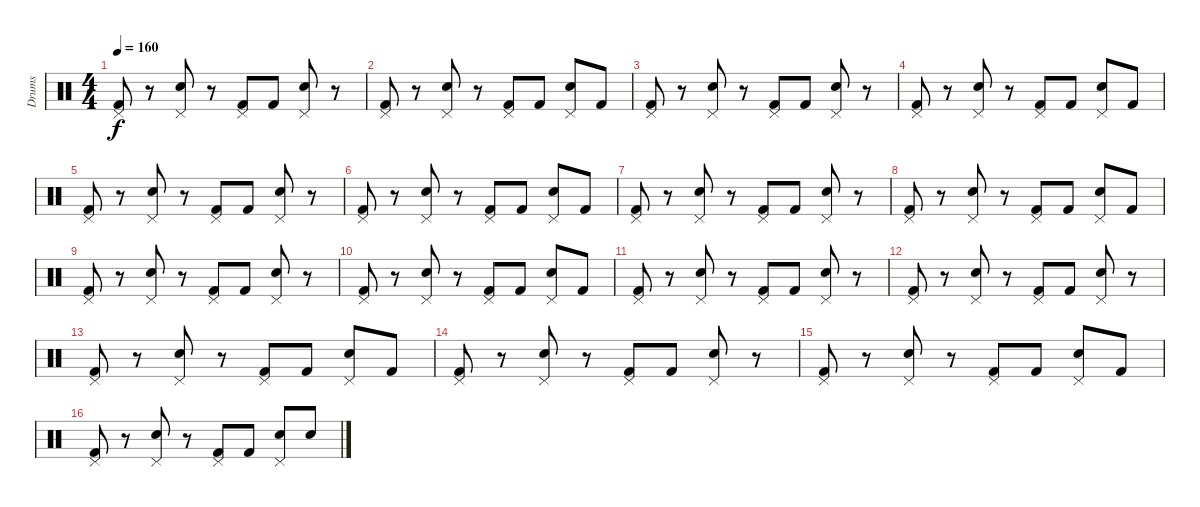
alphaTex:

\track ("Drums" "Drums") {instrument percussion}
\staff {score}
\articulation defaults
\ts (4 4)
\tempo 160
\clef neutral
\ks c
("Pedal Hi-Hat (hit)" "Kick (hit) 2").8{dy f} r.8 ("Pedal Hi-Hat (hit)" "Snare (hit) 2").8 r.8 ("Pedal Hi-Hat (hit)" "Kick (hit) 2").8 "Kick (hit) 2".8 ("Pedal Hi-Hat (hit)" "Snare (hit) 2").8 r.8 |
("Pedal Hi-Hat (hit)" "Kick (hit) 2").8 r.8 ("Pedal Hi-Hat (hit)" "Snare (hit) 2").8 r.8 ("Pedal Hi-Hat (hit)" "Kick (hit) 2").8 "Kick (hit) 2".8 ("Pedal Hi-Hat (hit)" "Snare (hit) 2").8 "Kick (hit) 2".8 |
("Pedal Hi-Hat (hit)" "Kick (hit) 2").8 r.8 ("Pedal Hi-Hat (hit)" "Snare (hit) 2").8 r.8 ("Pedal Hi-Hat (hit)" "Kick (hit) 2").8 "Kick (hit) 2".8 ("Pedal Hi-Hat (hit)" "Snare (hit) 2").8 r.8 |
("Pedal Hi-Hat (hit)" "Kick (hit) 2").8 r.8 ("Pedal Hi-Hat (hit)" "Snare (hit) 2").8 r.8 ("Pedal Hi-Hat (hit)" "Kick (hit) 2").8 "Kick (hit) 2".8 ("Pedal Hi-Hat (hit)" "Snare (hit) 2").8 "Kick (hit) 2".8 |
("Pedal Hi-Hat (hit)" "Kick (hit) 2").8 r.8 ("Pedal Hi-Hat (hit)" "Snare (hit) 2").8 r.8 ("Pedal Hi-Hat (hit)" "Kick (hit) 2").8 "Kick (hit) 2".8 ("Pedal Hi-Hat (hit)" "Snare (hit) 2").8 r.8 |
("Pedal Hi-Hat (hit)" "Kick (hit) 2").8 r.8 ("Pedal Hi-Hat (hit)" "Snare (hit) 2").8 r.8 ("Pedal Hi-Hat (hit)" "Kick (hit) 2").8 "Kick (hit) 2".8 ("Pedal Hi-Hat (hit)" "Snare (hit) 2").8 "Kick (hit) 2".8 |
("Pedal Hi-Hat (hit)" "Kick (hit) 2").8 r.8 ("Pedal Hi-Hat (hit)" "Snare (hit) 2").8 r.8 ("Pedal Hi-Hat (hit)" "Kick (hit) 2").8 "Kick (hit) 2".8 ("Pedal Hi-Hat (hit)" "Snare (hit) 2").8 r.8 |
("Pedal Hi-Hat (hit)" "Kick (hit) 2").8 r.8 ("Pedal Hi-Hat (hit)" "Snare (hit) 2").8 r.8 ("Pedal Hi-Hat (hit)" "Kick (hit) 2").8 "Kick (hit) 2".8 ("Pedal Hi-Hat (hit)" "Snare (hit) 2").8 "Kick (hit) 2".8 |
("Pedal Hi-Hat (hit)" "Kick (hit) 2").8 r.8 ("Pedal Hi-Hat (hit)" "Snare (hit) 2").8 r.8 ("Pedal Hi-Hat (hit)" "Kick (hit) 2").8 "Kick (hit) 2".8 ("Pedal Hi-Hat (hit)" "Snare (hit) 2").8 r.8 |
("Pedal Hi-Hat (hit)" "Kick (hit) 2").8 r.8 ("Pedal Hi-Hat (hit)" "Snare (hit) 2").8 r.8 ("Pedal Hi-Hat (hit)" "Kick (hit) 2").8 "Kick (hit) 2".8 ("Pedal Hi-Hat (hit)" "Snare (hit) 2").8 "Kick (hit) 2".8 |
("Pedal Hi-Hat (hit)" "Kick (hit) 2").8 r.8 ("Pedal Hi-Hat (hit)" "Snare (hit) 2").8 r.8 ("Pedal Hi-Hat (hit)" "Kick (hit) 2").8 "Kick (hit) 2".8 ("Pedal Hi-Hat (hit)" "Snare (hit) 2").8 r.8 |
("Pedal Hi-Hat (hit)" "Kick (hit) 2").8 r.8 ("Pedal Hi-Hat (hit)" "Snare (hit) 2").8 r.8 ("Pedal Hi-Hat (hit)" "Kick (hit) 2").8 "Kick (hit) 2".8 ("Pedal Hi-Hat (hit)" "Snare (hit) 2").8 r.8 |
("Pedal Hi-Hat (hit)" "Kick (hit) 2").8 r.8 ("Pedal Hi-Hat (hit)" "Snare (hit) 2").8 r.8 ("Pedal Hi-Hat (hit)" "Kick (hit) 2").8 "Kick (hit) 2".8 ("Pedal Hi-Hat (hit)" "Snare (hit) 2").8 "Kick (hit) 2".8 |
("Pedal Hi-Hat (hit)" "Kick (hit) 2").8 r.8 ("Pedal Hi-Hat (hit)" "Snare (hit) 2").8 r.8 ("Pedal Hi-Hat (hit)" "Kick (hit) 2").8 "Kick (hit) 2".8 ("Pedal Hi-Hat (hit)" "Snare (hit) 2").8 r.8 |
("Pedal Hi-Hat (hit)" "Kick (hit) 2").8 r.8 ("Pedal Hi-Hat (hit)" "Snare (hit) 2").8 r.8 ("Pedal Hi-Hat (hit)" "Kick (hit) 2").8 "Kick (hit) 2".8 ("Pedal Hi-Hat (hit)" "Snare (hit) 2").8 "Kick (hit) 2".8 |
("Pedal Hi-Hat (hit)" "Kick (hit) 2").8 r.8 ("Pedal Hi-Hat (hit)" "Snare (hit) 2").8 r.8 ("Pedal Hi-Hat (hit)" "Kick (hit) 2").8 "Kick (hit) 2".8 ("Pedal Hi-Hat (hit)" "Snare (hit) 2").8 "Snare (hit) 2".8
